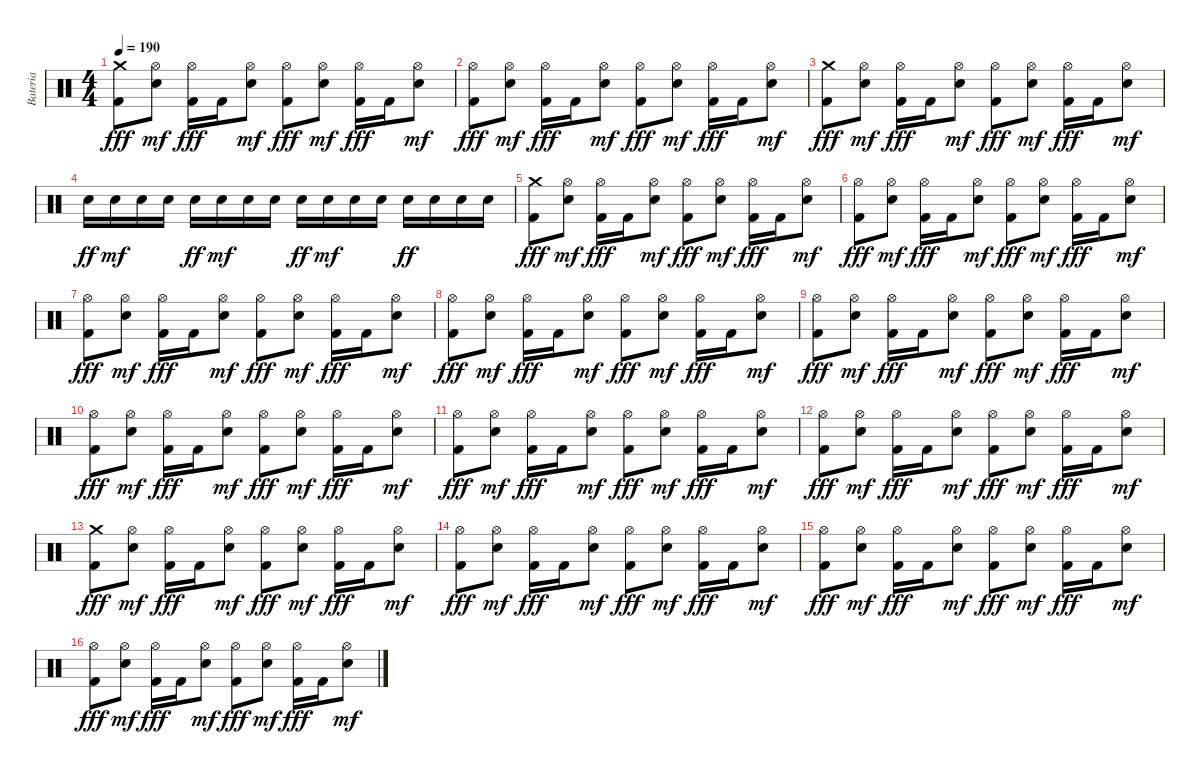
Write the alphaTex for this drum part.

\track ("Bateria" "Bateria") {instrument percussion}
\staff {score}
\articulation defaults
\ts (4 4)
\tempo 190
\clef neutral
\ks c
("Crash medium (hit)" "Kick (hit) 2").8{dy fff} ("Hi-Hat (open)" "Electric Snare (hit)").8{dy mf} ("Hi-Hat (open)" "Kick (hit) 2").16{dy fff} "Kick (hit) 2".16 ("Hi-Hat (open)" "Electric Snare (hit)").8{dy mf} ("Hi-Hat (open)" "Kick (hit) 2").8{dy fff} ("Hi-Hat (open)" "Electric Snare (hit)").8{dy mf} ("Hi-Hat (open)" "Kick (hit) 2").16{dy fff} "Kick (hit) 2".16 ("Hi-Hat (open)" "Electric Snare (hit)").8{dy mf} |
("Hi-Hat (open)" "Kick (hit) 2").8{dy fff} ("Hi-Hat (open)" "Electric Snare (hit)").8{dy mf} ("Hi-Hat (open)" "Kick (hit) 2").16{dy fff} "Kick (hit) 2".16 ("Hi-Hat (open)" "Electric Snare (hit)").8{dy mf} ("Hi-Hat (open)" "Kick (hit) 2").8{dy fff} ("Hi-Hat (open)" "Electric Snare (hit)").8{dy mf} ("Hi-Hat (open)" "Kick (hit) 2").16{dy fff} "Kick (hit) 2".16 ("Hi-Hat (open)" "Electric Snare (hit)").8{dy mf} |
("Crash medium (hit)" "Kick (hit) 2").8{dy fff} ("Hi-Hat (open)" "Electric Snare (hit)").8{dy mf} ("Hi-Hat (open)" "Kick (hit) 2").16{dy fff} "Kick (hit) 2".16 ("Hi-Hat (open)" "Electric Snare (hit)").8{dy mf} ("Hi-Hat (open)" "Kick (hit) 2").8{dy fff} ("Hi-Hat (open)" "Electric Snare (hit)").8{dy mf} ("Hi-Hat (open)" "Kick (hit) 2").16{dy fff} "Kick (hit) 2".16 ("Hi-Hat (open)" "Electric Snare (hit)").8{dy mf} |
"Electric Snare (hit)".16{dy ff} "Electric Snare (hit)".16{dy mf} "Electric Snare (hit)".16 "Electric Snare (hit)".16 "Electric Snare (hit)".16{dy ff} "Electric Snare (hit)".16{dy mf} "Electric Snare (hit)".16 "Electric Snare (hit)".16 "Electric Snare (hit)".16{dy ff} "Electric Snare (hit)".16{dy mf} "Electric Snare (hit)".16 "Electric Snare (hit)".16 "Electric Snare (hit)".16{dy ff} "Electric Snare (hit)".16 "Electric Snare (hit)".16 "Electric Snare (hit)".16 |
("Crash medium (hit)" "Kick (hit) 2").8{dy fff} ("Hi-Hat (open)" "Electric Snare (hit)").8{dy mf} ("Hi-Hat (open)" "Kick (hit) 2").16{dy fff} "Kick (hit) 2".16 ("Hi-Hat (open)" "Electric Snare (hit)").8{dy mf} ("Hi-Hat (open)" "Kick (hit) 2").8{dy fff} ("Hi-Hat (open)" "Electric Snare (hit)").8{dy mf} ("Hi-Hat (open)" "Kick (hit) 2").16{dy fff} "Kick (hit) 2".16 ("Hi-Hat (open)" "Electric Snare (hit)").8{dy mf} |
("Hi-Hat (open)" "Kick (hit) 2").8{dy fff} ("Hi-Hat (open)" "Electric Snare (hit)").8{dy mf} ("Hi-Hat (open)" "Kick (hit) 2").16{dy fff} "Kick (hit) 2".16 ("Hi-Hat (open)" "Electric Snare (hit)").8{dy mf} ("Hi-Hat (open)" "Kick (hit) 2").8{dy fff} ("Hi-Hat (open)" "Electric Snare (hit)").8{dy mf} ("Hi-Hat (open)" "Kick (hit) 2").16{dy fff} "Kick (hit) 2".16 ("Hi-Hat (open)" "Electric Snare (hit)").8{dy mf} |
("Hi-Hat (open)" "Kick (hit) 2").8{dy fff} ("Hi-Hat (open)" "Electric Snare (hit)").8{dy mf} ("Hi-Hat (open)" "Kick (hit) 2").16{dy fff} "Kick (hit) 2".16 ("Hi-Hat (open)" "Electric Snare (hit)").8{dy mf} ("Hi-Hat (open)" "Kick (hit) 2").8{dy fff} ("Hi-Hat (open)" "Electric Snare (hit)").8{dy mf} ("Hi-Hat (open)" "Kick (hit) 2").16{dy fff} "Kick (hit) 2".16 ("Hi-Hat (open)" "Electric Snare (hit)").8{dy mf} |
("Hi-Hat (open)" "Kick (hit) 2").8{dy fff} ("Hi-Hat (open)" "Electric Snare (hit)").8{dy mf} ("Hi-Hat (open)" "Kick (hit) 2").16{dy fff} "Kick (hit) 2".16 ("Hi-Hat (open)" "Electric Snare (hit)").8{dy mf} ("Hi-Hat (open)" "Kick (hit) 2").8{dy fff} ("Hi-Hat (open)" "Electric Snare (hit)").8{dy mf} ("Hi-Hat (open)" "Kick (hit) 2").16{dy fff} "Kick (hit) 2".16 ("Hi-Hat (open)" "Electric Snare (hit)").8{dy mf} |
("Hi-Hat (open)" "Kick (hit) 2").8{dy fff} ("Hi-Hat (open)" "Electric Snare (hit)").8{dy mf} ("Hi-Hat (open)" "Kick (hit) 2").16{dy fff} "Kick (hit) 2".16 ("Hi-Hat (open)" "Electric Snare (hit)").8{dy mf} ("Hi-Hat (open)" "Kick (hit) 2").8{dy fff} ("Hi-Hat (open)" "Electric Snare (hit)").8{dy mf} ("Hi-Hat (open)" "Kick (hit) 2").16{dy fff} "Kick (hit) 2".16 ("Hi-Hat (open)" "Electric Snare (hit)").8{dy mf} |
("Hi-Hat (open)" "Kick (hit) 2").8{dy fff} ("Hi-Hat (open)" "Electric Snare (hit)").8{dy mf} ("Hi-Hat (open)" "Kick (hit) 2").16{dy fff} "Kick (hit) 2".16 ("Hi-Hat (open)" "Electric Snare (hit)").8{dy mf} ("Hi-Hat (open)" "Kick (hit) 2").8{dy fff} ("Hi-Hat (open)" "Electric Snare (hit)").8{dy mf} ("Hi-Hat (open)" "Kick (hit) 2").16{dy fff} "Kick (hit) 2".16 ("Hi-Hat (open)" "Electric Snare (hit)").8{dy mf} |
("Hi-Hat (open)" "Kick (hit) 2").8{dy fff} ("Hi-Hat (open)" "Electric Snare (hit)").8{dy mf} ("Hi-Hat (open)" "Kick (hit) 2").16{dy fff} "Kick (hit) 2".16 ("Hi-Hat (open)" "Electric Snare (hit)").8{dy mf} ("Hi-Hat (open)" "Kick (hit) 2").8{dy fff} ("Hi-Hat (open)" "Electric Snare (hit)").8{dy mf} ("Hi-Hat (open)" "Kick (hit) 2").16{dy fff} "Kick (hit) 2".16 ("Hi-Hat (open)" "Electric Snare (hit)").8{dy mf} |
("Hi-Hat (open)" "Kick (hit) 2").8{dy fff} ("Hi-Hat (open)" "Electric Snare (hit)").8{dy mf} ("Hi-Hat (open)" "Kick (hit) 2").16{dy fff} "Kick (hit) 2".16 ("Hi-Hat (open)" "Electric Snare (hit)").8{dy mf} ("Hi-Hat (open)" "Kick (hit) 2").8{dy fff} ("Hi-Hat (open)" "Electric Snare (hit)").8{dy mf} ("Hi-Hat (open)" "Kick (hit) 2").16{dy fff} "Kick (hit) 2".16 ("Hi-Hat (open)" "Electric Snare (hit)").8{dy mf} |
("Crash medium (hit)" "Kick (hit) 2").8{dy fff} ("Hi-Hat (open)" "Electric Snare (hit)").8{dy mf} ("Hi-Hat (open)" "Kick (hit) 2").16{dy fff} "Kick (hit) 2".16 ("Hi-Hat (open)" "Electric Snare (hit)").8{dy mf} ("Hi-Hat (open)" "Kick (hit) 2").8{dy fff} ("Hi-Hat (open)" "Electric Snare (hit)").8{dy mf} ("Hi-Hat (open)" "Kick (hit) 2").16{dy fff} "Kick (hit) 2".16 ("Hi-Hat (open)" "Electric Snare (hit)").8{dy mf} |
("Hi-Hat (open)" "Kick (hit) 2").8{dy fff} ("Hi-Hat (open)" "Electric Snare (hit)").8{dy mf} ("Hi-Hat (open)" "Kick (hit) 2").16{dy fff} "Kick (hit) 2".16 ("Hi-Hat (open)" "Electric Snare (hit)").8{dy mf} ("Hi-Hat (open)" "Kick (hit) 2").8{dy fff} ("Hi-Hat (open)" "Electric Snare (hit)").8{dy mf} ("Hi-Hat (open)" "Kick (hit) 2").16{dy fff} "Kick (hit) 2".16 ("Hi-Hat (open)" "Electric Snare (hit)").8{dy mf} |
("Hi-Hat (open)" "Kick (hit) 2").8{dy fff} ("Hi-Hat (open)" "Electric Snare (hit)").8{dy mf} ("Hi-Hat (open)" "Kick (hit) 2").16{dy fff} "Kick (hit) 2".16 ("Hi-Hat (open)" "Electric Snare (hit)").8{dy mf} ("Hi-Hat (open)" "Kick (hit) 2").8{dy fff} ("Hi-Hat (open)" "Electric Snare (hit)").8{dy mf} ("Hi-Hat (open)" "Kick (hit) 2").16{dy fff} "Kick (hit) 2".16 ("Hi-Hat (open)" "Electric Snare (hit)").8{dy mf} |
("Hi-Hat (open)" "Kick (hit) 2").8{dy fff} ("Hi-Hat (open)" "Electric Snare (hit)").8{dy mf} ("Hi-Hat (open)" "Kick (hit) 2").16{dy fff} "Kick (hit) 2".16 ("Hi-Hat (open)" "Electric Snare (hit)").8{dy mf} ("Hi-Hat (open)" "Kick (hit) 2").8{dy fff} ("Hi-Hat (open)" "Electric Snare (hit)").8{dy mf} ("Hi-Hat (open)" "Kick (hit) 2").16{dy fff} "Kick (hit) 2".16 ("Hi-Hat (open)" "Electric Snare (hit)").8{dy mf}
